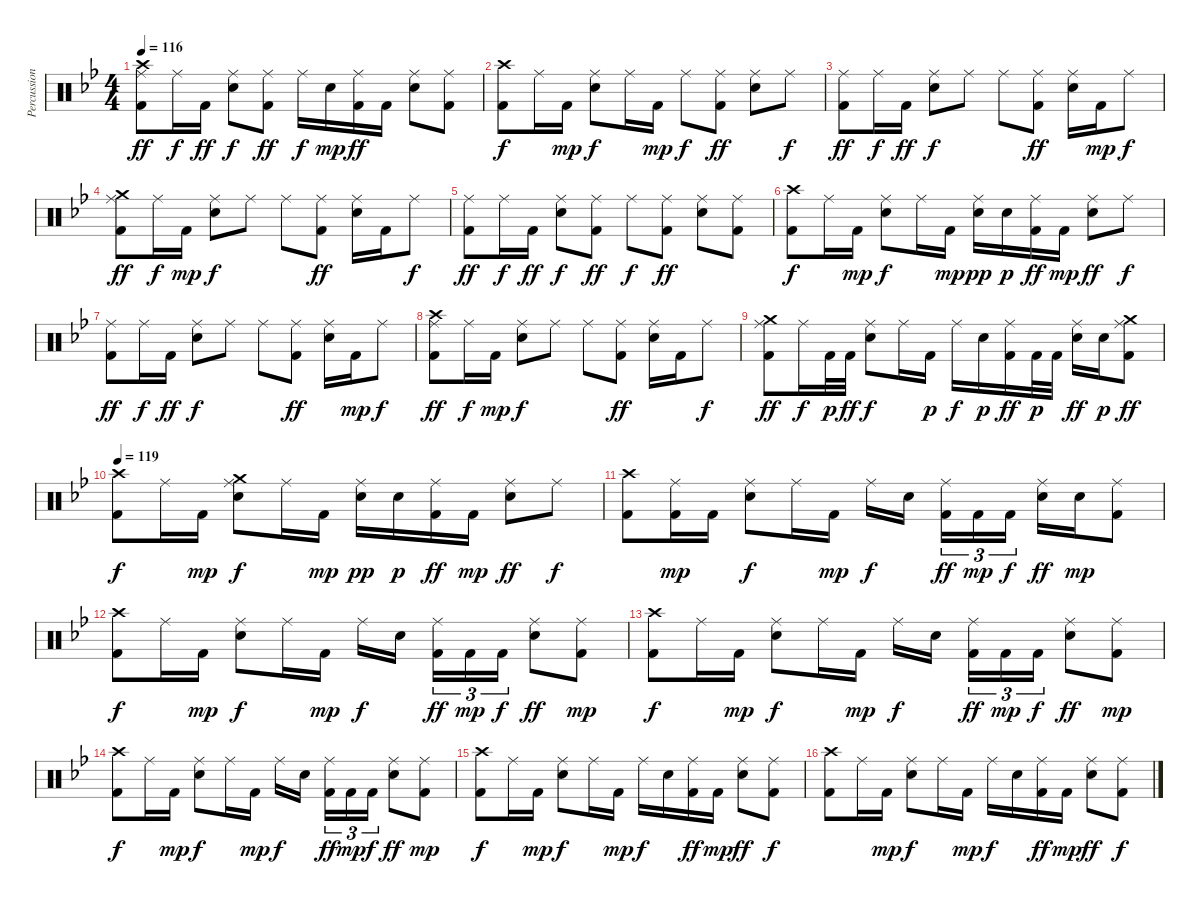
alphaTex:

\track ("Percussions" "Percussion") {instrument percussion}
\staff {score}
\articulation defaults
\ts (4 4)
\tempo 116
\clef neutral
\ks bb
("Crash high (hit)" "Ride (middle)" "Kick (hit) 2").8{dy ff} "Ride (middle)".16{dy f} "Kick (hit) 2".16{dy ff} ("Ride (middle)" "Snare (hit) 2").8{dy f} ("Ride (middle)" "Kick (hit) 2").8{dy ff} "Ride (middle)".16{dy f} "Snare (hit) 2".16{dy mp} ("Ride (middle)" "Kick (hit) 2").16{dy ff} "Kick (hit) 2".16 ("Ride (middle)" "Snare (hit) 2").8 ("Ride (middle)" "Kick (hit) 2").8 |
("Crash high (hit)" "Kick (hit) 2").8{dy f} "Ride (middle)".16 "Kick (hit) 2".16{dy mp} ("Ride (middle)" "Snare (hit) 2").8{dy f} "Ride (middle)".16 "Kick (hit) 2".16{dy mp} "Ride (middle)".8{dy f} ("Ride (middle)" "Kick (hit) 2").8{dy ff} ("Ride (middle)" "Snare (hit) 2").8 "Ride (middle)".8{dy f} |
("Ride (middle)" "Kick (hit) 2").8{dy ff} "Ride (middle)".16{dy f} "Kick (hit) 2".16{dy ff} ("Ride (middle)" "Snare (hit) 2").8{dy f} "Ride (middle)".8 "Ride (middle)".8 ("Ride (middle)" "Kick (hit) 2").8{dy ff} ("Ride (middle)" "Snare (hit) 2").16 "Kick (hit) 2".16{dy mp} "Ride (middle)".8{dy f} |
("Crash medium (hit)" "Ride (middle)" "Kick (hit) 2").8{dy ff} "Ride (middle)".16{dy f} "Kick (hit) 2".16{dy mp} ("Ride (middle)" "Snare (hit) 2").8{dy f} "Ride (middle)".8 "Ride (middle)".8 ("Ride (middle)" "Kick (hit) 2").8{dy ff} ("Ride (middle)" "Snare (hit) 2").16 "Kick (hit) 2".16 "Ride (middle)".8{dy f} |
("Ride (middle)" "Kick (hit) 2").8{dy ff} "Ride (middle)".16{dy f} "Kick (hit) 2".16{dy ff} ("Ride (middle)" "Snare (hit) 2").8{dy f} ("Ride (middle)" "Kick (hit) 2").8{dy ff} "Ride (middle)".8{dy f} ("Ride (middle)" "Kick (hit) 2").8{dy ff} ("Ride (middle)" "Snare (hit) 2").8 ("Ride (middle)" "Kick (hit) 2").8 |
("Crash high (hit)" "Kick (hit) 2").8{dy f} "Ride (middle)".16 "Kick (hit) 2".16{dy mp} ("Ride (middle)" "Snare (hit) 2").8{dy f} "Ride (middle)".16 "Kick (hit) 2".16{dy mp} ("Ride (middle)" "Snare (hit) 2").16{dy pp} "Snare (hit) 2".16{dy p} ("Ride (middle)" "Kick (hit) 2").16{dy ff} "Kick (hit) 2".16{dy mp} ("Ride (middle)" "Snare (hit) 2").8{dy ff} "Ride (middle)".8{dy f} |
("Ride (middle)" "Kick (hit) 2").8{dy ff} "Ride (middle)".16{dy f} "Kick (hit) 2".16{dy ff} ("Ride (middle)" "Snare (hit) 2").8{dy f} "Ride (middle)".8 "Ride (middle)".8 ("Ride (middle)" "Kick (hit) 2").8{dy ff} ("Ride (middle)" "Snare (hit) 2").16 "Kick (hit) 2".16{dy mp} "Ride (middle)".8{dy f} |
("Crash high (hit)" "Ride (middle)" "Kick (hit) 2").8{dy ff} "Ride (middle)".16{dy f} "Kick (hit) 2".16{dy mp} ("Ride (middle)" "Snare (hit) 2").8{dy f} "Ride (middle)".8 "Ride (middle)".8 ("Ride (middle)" "Kick (hit) 2").8{dy ff} ("Ride (middle)" "Snare (hit) 2").16 "Kick (hit) 2".16 "Ride (middle)".8{dy f} |
("Crash medium (hit)" "Ride (middle)" "Kick (hit) 2").8{dy ff} "Ride (middle)".16{dy f} "Kick (hit) 2".32{dy p} "Kick (hit) 2".32{dy ff} ("Ride (middle)" "Snare (hit) 2").8{dy f} "Ride (middle)".16 "Kick (hit) 2".16{dy p} "Ride (middle)".16{dy f} "Snare (hit) 2".16{dy p} ("Ride (middle)" "Kick (hit) 2").16{dy ff} "Kick (hit) 2".32{dy p} "Kick (hit) 2".32 ("Ride (middle)" "Snare (hit) 2").16{dy ff} "Snare (hit) 2".16{dy p} ("Crash medium (hit)" "Ride (middle)" "Kick (hit) 2").8{dy ff} |
\tempo 119
("Crash high (hit)" "Kick (hit) 2").8{dy f} "Ride (middle)".16 "Kick (hit) 2".16{dy mp} ("Crash medium (hit)" "Ride (middle)" "Snare (hit) 2").8{dy f} "Ride (middle)".16 "Kick (hit) 2".16{dy mp} ("Ride (middle)" "Snare (hit) 2").16{dy pp} "Snare (hit) 2".16{dy p} ("Ride (middle)" "Kick (hit) 2").16{dy ff} "Kick (hit) 2".16{dy mp} ("Ride (middle)" "Snare (hit) 2").8{dy ff} "Ride (middle)".8{dy f} |
("Crash high (hit)" "Kick (hit) 2").8 ("Ride (middle)" "Kick (hit) 2").16{dy mp} "Kick (hit) 2".16 ("Ride (middle)" "Snare (hit) 2").8{dy f} "Ride (middle)".16 "Kick (hit) 2".16{dy mp} "Ride (middle)".16{dy f} "Snare (hit) 2".16 ("Ride (middle)" "Kick (hit) 2").16{tu (3 2) dy ff} "Kick (hit) 2".16{tu (3 2) dy mp} "Kick (hit) 2".16{tu (3 2) dy f} ("Ride (middle)" "Snare (hit) 2").16{dy ff} "Snare (hit) 2".16{dy mp} ("Ride (middle)" "Kick (hit) 2").8 |
("Crash high (hit)" "Kick (hit) 2").8{dy f} "Ride (middle)".16 "Kick (hit) 2".16{dy mp} ("Ride (middle)" "Snare (hit) 2").8{dy f} "Ride (middle)".16 "Kick (hit) 2".16{dy mp} "Ride (middle)".16{dy f} "Snare (hit) 2".16 ("Ride (middle)" "Kick (hit) 2").16{tu (3 2) dy ff} "Kick (hit) 2".16{tu (3 2) dy mp} "Kick (hit) 2".16{tu (3 2) dy f} ("Ride (middle)" "Snare (hit) 2").8{dy ff} ("Ride (middle)" "Kick (hit) 2").8{dy mp} |
("Crash high (hit)" "Kick (hit) 2").8{dy f} "Ride (middle)".16 "Kick (hit) 2".16{dy mp} ("Ride (middle)" "Snare (hit) 2").8{dy f} "Ride (middle)".16 "Kick (hit) 2".16{dy mp} "Ride (middle)".16{dy f} "Snare (hit) 2".16 ("Ride (middle)" "Kick (hit) 2").16{tu (3 2) dy ff} "Kick (hit) 2".16{tu (3 2) dy mp} "Kick (hit) 2".16{tu (3 2) dy f} ("Ride (middle)" "Snare (hit) 2").8{dy ff} ("Ride (middle)" "Kick (hit) 2").8{dy mp} |
("Crash high (hit)" "Kick (hit) 2").8{dy f} "Ride (middle)".16 "Kick (hit) 2".16{dy mp} ("Ride (middle)" "Snare (hit) 2").8{dy f} "Ride (middle)".16 "Kick (hit) 2".16{dy mp} "Ride (middle)".16{dy f} "Snare (hit) 2".16 ("Ride (middle)" "Kick (hit) 2").16{tu (3 2) dy ff} "Kick (hit) 2".16{tu (3 2) dy mp} "Kick (hit) 2".16{tu (3 2) dy f} ("Ride (middle)" "Snare (hit) 2").8{dy ff} ("Ride (middle)" "Kick (hit) 2").8{dy mp} |
("Crash high (hit)" "Kick (hit) 2").8{dy f} "Ride (middle)".16 "Kick (hit) 2".16{dy mp} ("Ride (middle)" "Snare (hit) 2").8{dy f} "Ride (middle)".16 "Kick (hit) 2".16{dy mp} "Ride (middle)".16{dy f} "Snare (hit) 2".16 ("Ride (middle)" "Kick (hit) 2").16{dy ff} "Kick (hit) 2".16{dy mp} ("Ride (middle)" "Snare (hit) 2").8{dy ff} ("Ride (middle)" "Kick (hit) 2").8{dy f} |
("Crash high (hit)" "Kick (hit) 2").8 "Ride (middle)".16 "Kick (hit) 2".16{dy mp} ("Ride (middle)" "Snare (hit) 2").8{dy f} "Ride (middle)".16 "Kick (hit) 2".16{dy mp} "Ride (middle)".16{dy f} "Snare (hit) 2".16 ("Ride (middle)" "Kick (hit) 2").16{dy ff} "Kick (hit) 2".16{dy mp} ("Ride (middle)" "Snare (hit) 2").8{dy ff} ("Ride (middle)" "Kick (hit) 2").8{dy f}
